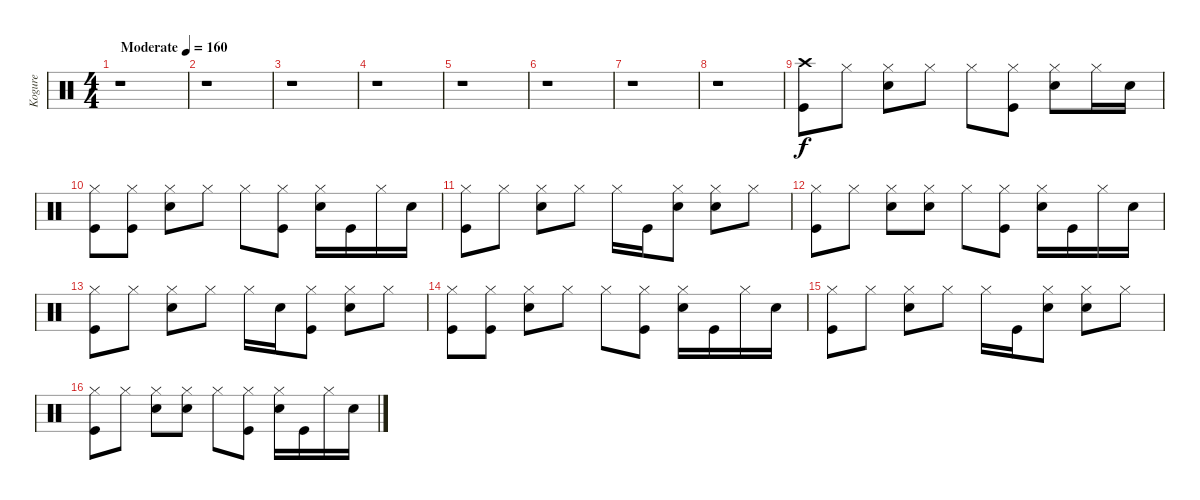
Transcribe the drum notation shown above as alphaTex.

\track ("Kogure" "Kogure") {instrument percussion}
\staff {score}
\articulation defaults
\ts (4 4)
\tempo (160 "Moderate")
\clef neutral
\ks c
r.1{dy f} |
r.1 |
r.1 |
r.1 |
r.1 |
r.1 |
r.1 |
r.1 |
("Crash high (hit)" "Kick (hit)").8 "Hi-Hat (closed)".8 ("Hi-Hat (closed)" "Snare (hit) 2").8 "Hi-Hat (closed)".8 "Hi-Hat (closed)".8 ("Hi-Hat (closed)" "Kick (hit)").8 ("Hi-Hat (closed)" "Snare (hit) 2").8 "Hi-Hat (closed)".16 "Snare (hit) 2".16 |
("Hi-Hat (closed)" "Kick (hit)").8 ("Hi-Hat (closed)" "Kick (hit)").8 ("Hi-Hat (closed)" "Snare (hit) 2").8 "Hi-Hat (closed)".8 "Hi-Hat (closed)".8 ("Hi-Hat (closed)" "Kick (hit)").8 ("Hi-Hat (closed)" "Snare (hit) 2").16 "Kick (hit)".16 "Hi-Hat (closed)".16 "Snare (hit) 2".16 |
("Hi-Hat (closed)" "Kick (hit)").8 "Hi-Hat (closed)".8 ("Hi-Hat (closed)" "Snare (hit) 2").8 "Hi-Hat (closed)".8 "Hi-Hat (closed)".16 "Kick (hit)".16 ("Hi-Hat (closed)" "Snare (hit) 2").8 ("Hi-Hat (closed)" "Snare (hit) 2").8 "Hi-Hat (closed)".8 |
("Hi-Hat (closed)" "Kick (hit)").8 "Hi-Hat (closed)".8 ("Hi-Hat (closed)" "Snare (hit) 2").8 ("Hi-Hat (closed)" "Snare (hit) 2").8 "Hi-Hat (closed)".8 ("Hi-Hat (closed)" "Kick (hit)").8 ("Hi-Hat (closed)" "Snare (hit) 2").16 "Kick (hit)".16 "Hi-Hat (closed)".16 "Snare (hit) 2".16 |
("Hi-Hat (closed)" "Kick (hit)").8 "Hi-Hat (closed)".8 ("Hi-Hat (closed)" "Snare (hit) 2").8 "Hi-Hat (closed)".8 "Hi-Hat (closed)".16 "Snare (hit) 2".16 ("Hi-Hat (closed)" "Kick (hit)").8 ("Hi-Hat (closed)" "Snare (hit) 2").8 "Hi-Hat (closed)".8 |
("Hi-Hat (closed)" "Kick (hit)").8 ("Hi-Hat (closed)" "Kick (hit)").8 ("Hi-Hat (closed)" "Snare (hit) 2").8 "Hi-Hat (closed)".8 "Hi-Hat (closed)".8 ("Hi-Hat (closed)" "Kick (hit)").8 ("Hi-Hat (closed)" "Snare (hit) 2").16 "Kick (hit)".16 "Hi-Hat (closed)".16 "Snare (hit) 2".16 |
("Hi-Hat (closed)" "Kick (hit)").8 "Hi-Hat (closed)".8 ("Hi-Hat (closed)" "Snare (hit) 2").8 "Hi-Hat (closed)".8 "Hi-Hat (closed)".16 "Kick (hit)".16 ("Hi-Hat (closed)" "Snare (hit) 2").8 ("Hi-Hat (closed)" "Snare (hit) 2").8 "Hi-Hat (closed)".8 |
("Hi-Hat (closed)" "Kick (hit)").8 "Hi-Hat (closed)".8 ("Hi-Hat (closed)" "Snare (hit) 2").8 ("Hi-Hat (closed)" "Snare (hit) 2").8 "Hi-Hat (closed)".8 ("Hi-Hat (closed)" "Kick (hit)").8 ("Hi-Hat (closed)" "Snare (hit) 2").16 "Kick (hit)".16 "Hi-Hat (closed)".16 "Snare (hit) 2".16
